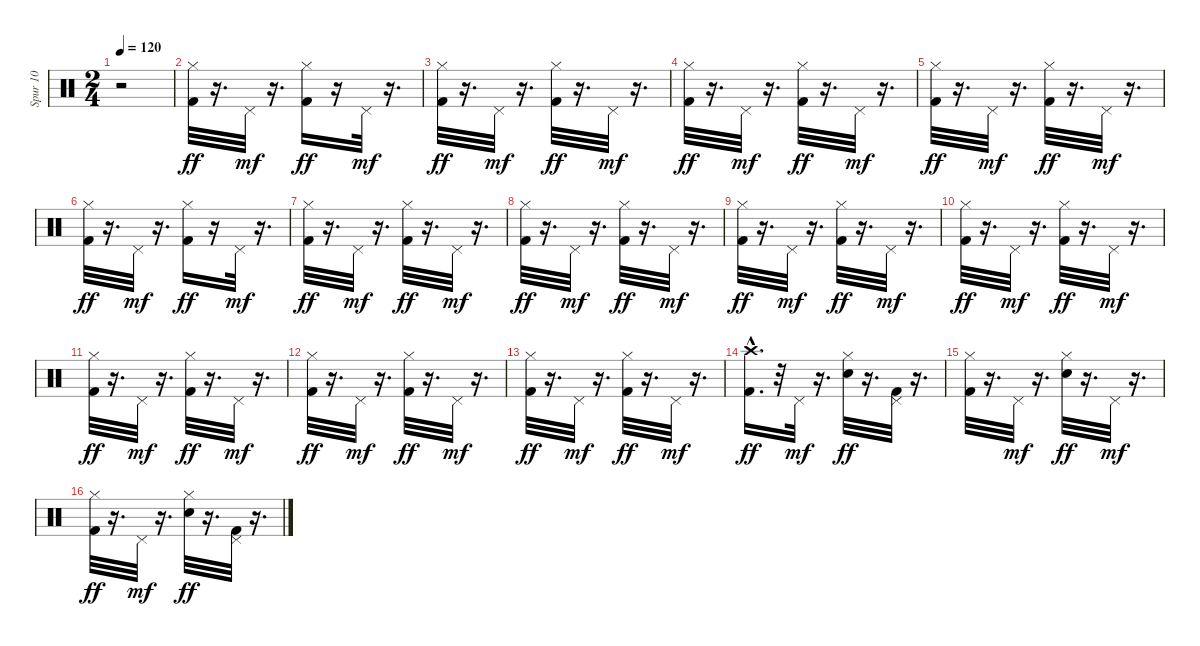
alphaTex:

\track ("Spur 10" "Spur 10") {instrument percussion}
\staff {score}
\articulation defaults
\ts (2 4)
\tempo 120
\clef neutral
\ks c
r.2{dy ff} |
("Hi-Hat (closed)" "Kick (hit) 2").32 r.16{d} "Pedal Hi-Hat (hit)".32{dy mf} r.16{d} ("Hi-Hat (closed)" "Kick (hit) 2").16{dy ff} r.16 "Pedal Hi-Hat (hit)".32{dy mf} r.16{d} |
("Hi-Hat (closed)" "Kick (hit) 2").32{dy ff} r.16{d} "Pedal Hi-Hat (hit)".32{dy mf} r.16{d} ("Hi-Hat (closed)" "Kick (hit) 2").32{dy ff} r.16{d} "Pedal Hi-Hat (hit)".32{dy mf} r.16{d} |
("Hi-Hat (closed)" "Kick (hit) 2").32{dy ff} r.16{d} "Pedal Hi-Hat (hit)".32{dy mf} r.16{d} ("Hi-Hat (closed)" "Kick (hit) 2").32{dy ff} r.16{d} "Pedal Hi-Hat (hit)".32{dy mf} r.16{d} |
("Hi-Hat (closed)" "Kick (hit) 2").32{dy ff} r.16{d} "Pedal Hi-Hat (hit)".32{dy mf} r.16{d} ("Hi-Hat (closed)" "Kick (hit) 2").32{dy ff} r.16{d} "Pedal Hi-Hat (hit)".32{dy mf} r.16{d} |
("Hi-Hat (closed)" "Kick (hit) 2").32{dy ff} r.16{d} "Pedal Hi-Hat (hit)".32{dy mf} r.16{d} ("Hi-Hat (closed)" "Kick (hit) 2").16{dy ff} r.16 "Pedal Hi-Hat (hit)".32{dy mf} r.16{d} |
("Hi-Hat (closed)" "Kick (hit) 2").32{dy ff} r.16{d} "Pedal Hi-Hat (hit)".32{dy mf} r.16{d} ("Hi-Hat (closed)" "Kick (hit) 2").32{dy ff} r.16{d} "Pedal Hi-Hat (hit)".32{dy mf} r.16{d} |
("Hi-Hat (closed)" "Kick (hit) 2").32{dy ff} r.16{d} "Pedal Hi-Hat (hit)".32{dy mf} r.16{d} ("Hi-Hat (closed)" "Kick (hit) 2").32{dy ff} r.16{d} "Pedal Hi-Hat (hit)".32{dy mf} r.16{d} |
("Hi-Hat (closed)" "Kick (hit) 2").32{dy ff} r.16{d} "Pedal Hi-Hat (hit)".32{dy mf} r.16{d} ("Hi-Hat (closed)" "Kick (hit) 2").32{dy ff} r.16{d} "Pedal Hi-Hat (hit)".32{dy mf} r.16{d} |
("Hi-Hat (closed)" "Kick (hit) 2").32{dy ff} r.16{d} "Pedal Hi-Hat (hit)".32{dy mf} r.16{d} ("Hi-Hat (closed)" "Kick (hit) 2").32{dy ff} r.16{d} "Pedal Hi-Hat (hit)".32{dy mf} r.16{d} |
("Hi-Hat (closed)" "Kick (hit) 2").32{dy ff} r.16{d} "Pedal Hi-Hat (hit)".32{dy mf} r.16{d} ("Hi-Hat (closed)" "Kick (hit) 2").32{dy ff} r.16{d} "Pedal Hi-Hat (hit)".32{dy mf} r.16{d} |
("Hi-Hat (closed)" "Kick (hit) 2").32{dy ff} r.16{d} "Pedal Hi-Hat (hit)".32{dy mf} r.16{d} ("Hi-Hat (closed)" "Kick (hit) 2").32{dy ff} r.16{d} "Pedal Hi-Hat (hit)".32{dy mf} r.16{d} |
("Hi-Hat (closed)" "Kick (hit) 2").32{dy ff} r.16{d} "Pedal Hi-Hat (hit)".32{dy mf} r.16{d} ("Hi-Hat (closed)" "Kick (hit) 2").32{dy ff} r.16{d} "Pedal Hi-Hat (hit)".32{dy mf} r.16{d} |
("Crash high (hit)" "Kick (hit) 2"{hac}).16{d dy ff} r.32 "Pedal Hi-Hat (hit)".32{dy mf} r.16{d} ("Hi-Hat (closed)" "Snare (hit) 2").32{dy ff} r.16{d} ("Pedal Hi-Hat (hit)" "Kick (hit) 2").32 r.16{d} |
("Hi-Hat (closed)" "Kick (hit) 2").32 r.16{d} "Pedal Hi-Hat (hit)".32{dy mf} r.16{d} ("Hi-Hat (closed)" "Snare (hit) 2").32{dy ff} r.16{d} "Pedal Hi-Hat (hit)".32{dy mf} r.16{d} |
("Hi-Hat (closed)" "Kick (hit) 2").32{dy ff} r.16{d} "Pedal Hi-Hat (hit)".32{dy mf} r.16{d} ("Hi-Hat (closed)" "Snare (hit) 2").32{dy ff} r.16{d} ("Pedal Hi-Hat (hit)" "Kick (hit) 2").32 r.16{d}
